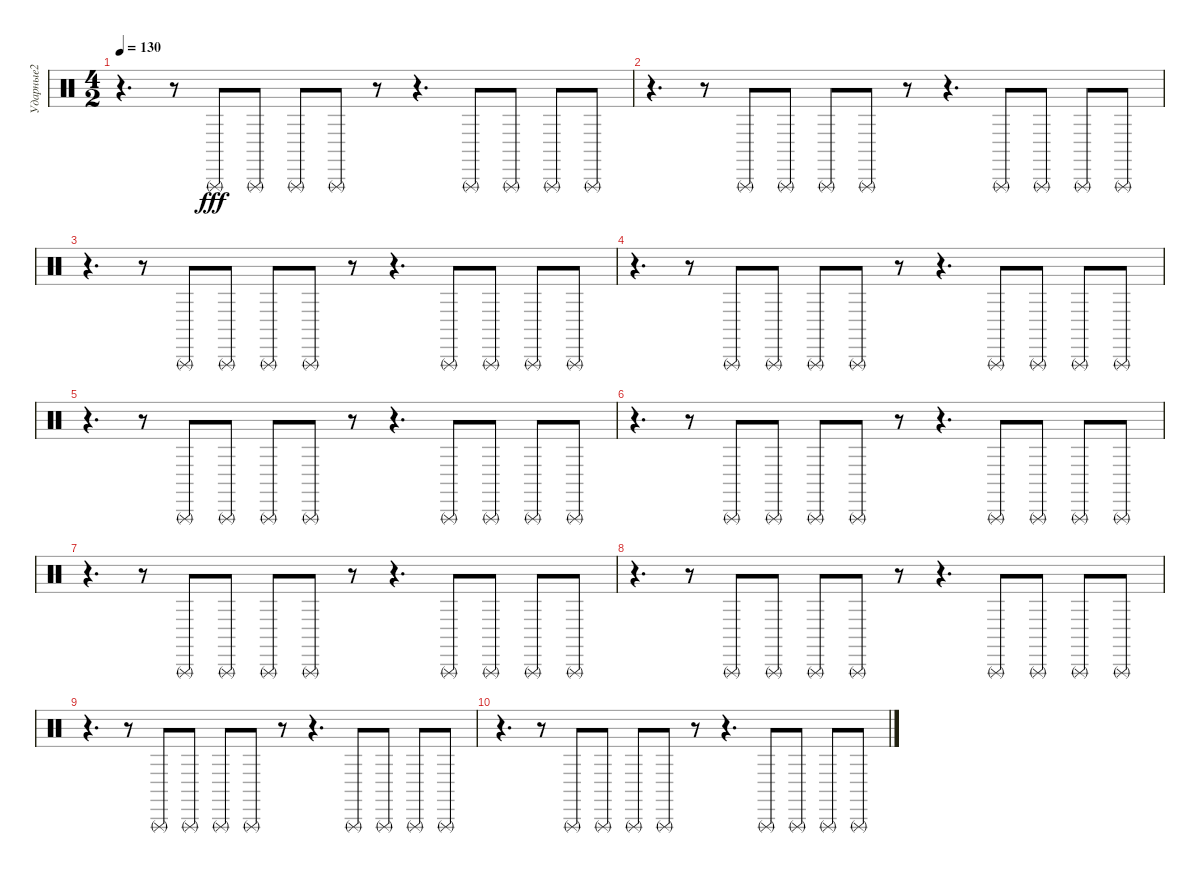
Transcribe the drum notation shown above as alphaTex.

\track ("Ударные2" "Ударные2") {instrument percussion}
\staff {score}
\articulation defaults
\ts (4 2)
\tempo 130
\clef neutral
\ks c
r.4{d dy fff} r.8 "Triangle (rnute)".8 "Triangle (rnute)".8 "Triangle (rnute)".8 "Triangle (rnute)".8 r.8 r.4{d} "Triangle (rnute)".8 "Triangle (rnute)".8 "Triangle (rnute)".8 "Triangle (rnute)".8 |
r.4{d} r.8 "Triangle (rnute)".8 "Triangle (rnute)".8 "Triangle (rnute)".8 "Triangle (rnute)".8 r.8 r.4{d} "Triangle (rnute)".8 "Triangle (rnute)".8 "Triangle (rnute)".8 "Triangle (rnute)".8 |
r.4{d} r.8 "Triangle (rnute)".8 "Triangle (rnute)".8 "Triangle (rnute)".8 "Triangle (rnute)".8 r.8 r.4{d} "Triangle (rnute)".8 "Triangle (rnute)".8 "Triangle (rnute)".8 "Triangle (rnute)".8 |
r.4{d} r.8 "Triangle (rnute)".8 "Triangle (rnute)".8 "Triangle (rnute)".8 "Triangle (rnute)".8 r.8 r.4{d} "Triangle (rnute)".8 "Triangle (rnute)".8 "Triangle (rnute)".8 "Triangle (rnute)".8 |
r.4{d} r.8 "Triangle (rnute)".8 "Triangle (rnute)".8 "Triangle (rnute)".8 "Triangle (rnute)".8 r.8 r.4{d} "Triangle (rnute)".8 "Triangle (rnute)".8 "Triangle (rnute)".8 "Triangle (rnute)".8 |
r.4{d} r.8 "Triangle (rnute)".8 "Triangle (rnute)".8 "Triangle (rnute)".8 "Triangle (rnute)".8 r.8 r.4{d} "Triangle (rnute)".8 "Triangle (rnute)".8 "Triangle (rnute)".8 "Triangle (rnute)".8 |
r.4{d} r.8 "Triangle (rnute)".8 "Triangle (rnute)".8 "Triangle (rnute)".8 "Triangle (rnute)".8 r.8 r.4{d} "Triangle (rnute)".8 "Triangle (rnute)".8 "Triangle (rnute)".8 "Triangle (rnute)".8 |
r.4{d} r.8 "Triangle (rnute)".8 "Triangle (rnute)".8 "Triangle (rnute)".8 "Triangle (rnute)".8 r.8 r.4{d} "Triangle (rnute)".8 "Triangle (rnute)".8 "Triangle (rnute)".8 "Triangle (rnute)".8 |
r.4{d} r.8 "Triangle (rnute)".8 "Triangle (rnute)".8 "Triangle (rnute)".8 "Triangle (rnute)".8 r.8 r.4{d} "Triangle (rnute)".8 "Triangle (rnute)".8 "Triangle (rnute)".8 "Triangle (rnute)".8 |
r.4{d} r.8 "Triangle (rnute)".8 "Triangle (rnute)".8 "Triangle (rnute)".8 "Triangle (rnute)".8 r.8 r.4{d} "Triangle (rnute)".8 "Triangle (rnute)".8 "Triangle (rnute)".8 "Triangle (rnute)".8
